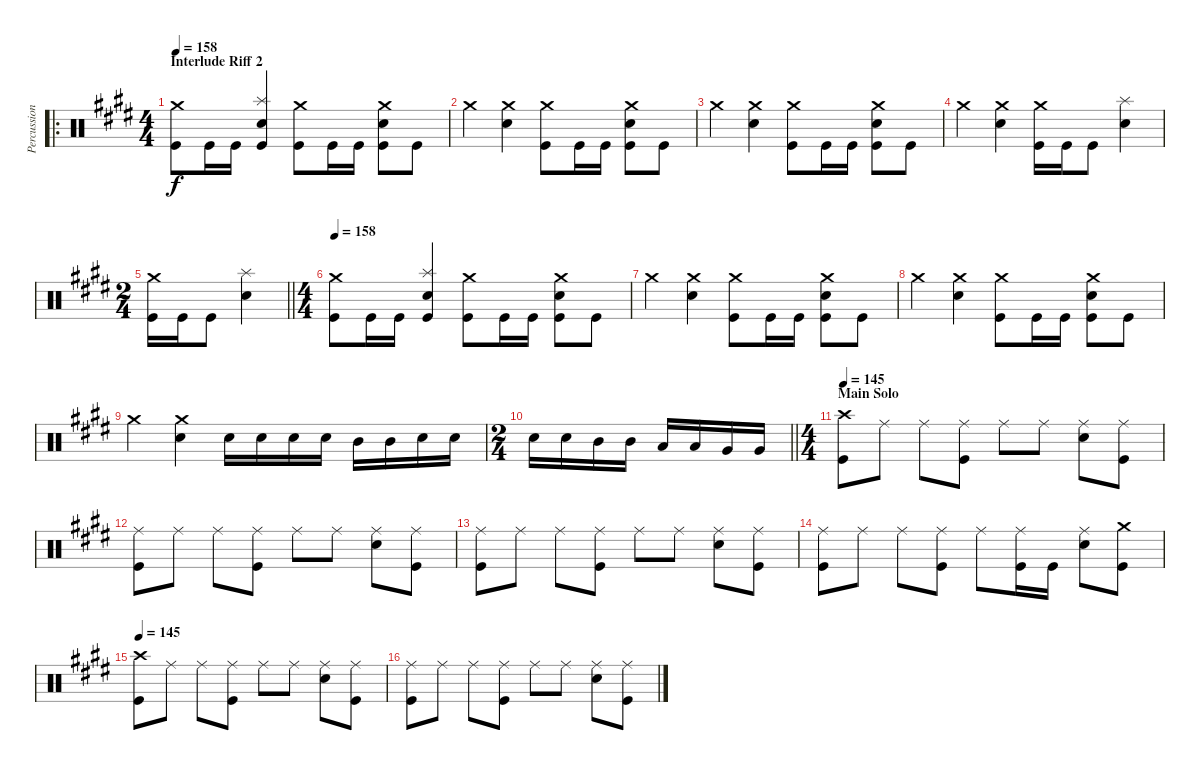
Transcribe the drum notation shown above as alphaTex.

\track ("Percussion" "Percussion") {instrument percussion}
\staff {score}
\articulation defaults
\ro
\ts (4 4)
\section ("" "Interlude Riff 2")
\tempo 158
\clef neutral
\ks e
("Crash medium (hit)" "Kick (hit)").8{dy f} "Kick (hit)".16 "Kick (hit)".16 ("Splash (hit)" "Electric Snare (hit)" "Kick (hit)").4 ("Crash medium (hit)" "Kick (hit)").8 "Kick (hit)".16 "Kick (hit)".16 ("Crash medium (hit)" "Electric Snare (hit)" "Kick (hit)").8 "Kick (hit)".8 |
"Crash medium (hit)".4 ("Crash medium (hit)" "Electric Snare (hit)").4 ("Crash medium (hit)" "Kick (hit)").8 "Kick (hit)".16 "Kick (hit)".16 ("Crash medium (hit)" "Electric Snare (hit)" "Kick (hit)").8 "Kick (hit)".8 |
"Crash medium (hit)".4 ("Crash medium (hit)" "Electric Snare (hit)").4 ("Crash medium (hit)" "Kick (hit)").8 "Kick (hit)".16 "Kick (hit)".16 ("Crash medium (hit)" "Electric Snare (hit)" "Kick (hit)").8 "Kick (hit)".8 |
"Crash medium (hit)".4 ("Crash medium (hit)" "Electric Snare (hit)").4 ("Crash medium (hit)" "Kick (hit)").16 "Kick (hit)".16 "Kick (hit)".8 ("Splash (hit)" "Electric Snare (hit)").4 |
\ts (2 4)
\barLineRight lightlight
("Crash medium (hit)" "Kick (hit)").16 "Kick (hit)".16 "Kick (hit)".8 ("Splash (hit)" "Electric Snare (hit)").4 |
\ts (4 4)
\tempo 158
("Crash medium (hit)" "Kick (hit)").8 "Kick (hit)".16 "Kick (hit)".16 ("Splash (hit)" "Electric Snare (hit)" "Kick (hit)").4 ("Crash medium (hit)" "Kick (hit)").8 "Kick (hit)".16 "Kick (hit)".16 ("Crash medium (hit)" "Electric Snare (hit)" "Kick (hit)").8 "Kick (hit)".8 |
"Crash medium (hit)".4 ("Crash medium (hit)" "Electric Snare (hit)").4 ("Crash medium (hit)" "Kick (hit)").8 "Kick (hit)".16 "Kick (hit)".16 ("Crash medium (hit)" "Electric Snare (hit)" "Kick (hit)").8 "Kick (hit)".8 |
"Crash medium (hit)".4 ("Crash medium (hit)" "Electric Snare (hit)").4 ("Crash medium (hit)" "Kick (hit)").8 "Kick (hit)".16 "Kick (hit)".16 ("Crash medium (hit)" "Electric Snare (hit)" "Kick (hit)").8 "Kick (hit)".8 |
"Crash medium (hit)".4 ("Crash medium (hit)" "Electric Snare (hit)").4 "Electric Snare (hit)".16 "Electric Snare (hit)".16 "Electric Snare (hit)".16 "Electric Snare (hit)".16 "Mid Tom (hit)".16 "Mid Tom (hit)".16 "Electric Snare (hit)".16 "Electric Snare (hit)".16 |
\ts (2 4)
\barLineRight lightlight "Electric Snare (hit)".16 "Electric Snare (hit)".16 "Mid Tom (hit)".16 "Mid Tom (hit)".16 "Low Tom (hit)".16 "Low Tom (hit)".16 "Very Low Tom (hit)".16 "Very Low Tom (hit)".16
|
\ts (4 4)
\section ("" "Main Solo")
\tempo 145
("Crash high (hit)" "Kick (hit)").8 "Ride (middle)".8 "Ride (middle)".8 ("Ride (middle)" "Kick (hit)").8 "Ride (middle)".8 "Ride (middle)".8 ("Ride (middle)" "Electric Snare (hit)").8 ("Ride (middle)" "Kick (hit)").8 |
("Ride (middle)" "Kick (hit)").8 "Ride (middle)".8 "Ride (middle)".8 ("Ride (middle)" "Kick (hit)").8 "Ride (middle)".8 "Ride (middle)".8 ("Ride (middle)" "Electric Snare (hit)").8 ("Ride (middle)" "Kick (hit)").8 |
("Ride (middle)" "Kick (hit)").8 "Ride (middle)".8 "Ride (middle)".8 ("Ride (middle)" "Kick (hit)").8 "Ride (middle)".8 "Ride (middle)".8 ("Ride (middle)" "Electric Snare (hit)").8 ("Ride (middle)" "Kick (hit)").8 |
("Ride (middle)" "Kick (hit)").8 "Ride (middle)".8 "Ride (middle)".8 ("Ride (middle)" "Kick (hit)").8 "Ride (middle)".8 ("Ride (middle)" "Kick (hit)").16 "Kick (hit)".16 ("Ride (middle)" "Electric Snare (hit)").8 ("Crash medium (hit)" "Kick (hit)").8 |
\tempo 145
("Crash high (hit)" "Kick (hit)").8 "Ride (middle)".8 "Ride (middle)".8 ("Ride (middle)" "Kick (hit)").8 "Ride (middle)".8 "Ride (middle)".8 ("Ride (middle)" "Electric Snare (hit)").8 ("Ride (middle)" "Kick (hit)").8 |
("Ride (middle)" "Kick (hit)").8 "Ride (middle)".8 "Ride (middle)".8 ("Ride (middle)" "Kick (hit)").8 "Ride (middle)".8 "Ride (middle)".8 ("Ride (middle)" "Electric Snare (hit)").8 ("Ride (middle)" "Kick (hit)").8
